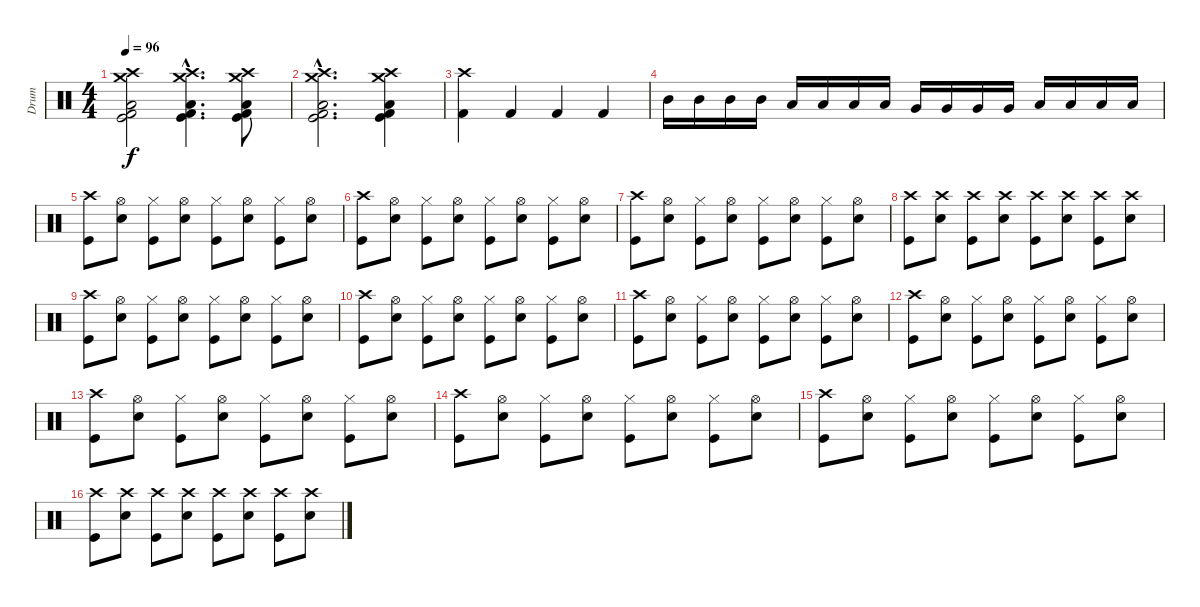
\track ("Drum" "Drum") {instrument percussion}
\staff {score}
\articulation defaults
\ts (4 4)
\tempo 96
\clef neutral
\ks c
("Crash high (hit)" "Crash medium (hit)" "Low Floor Tom (hit)" "Kick (hit)" "Kick (hit) 2").2{dy f} ("Crash high (hit)"{hac} "Crash medium (hit)"{hac} "Low Floor Tom (hit)"{hac} "Kick (hit)"{hac} "Kick (hit) 2"{hac}).4{d} ("Crash high (hit)" "Crash medium (hit)" "Low Floor Tom (hit)" "Kick (hit)" "Kick (hit) 2").8 |
("Crash high (hit)"{hac} "Crash medium (hit)"{hac} "Low Floor Tom (hit)"{hac} "Kick (hit)"{hac} "Kick (hit) 2"{hac}).2{d} ("Crash high (hit)" "Crash medium (hit)" "Low Floor Tom (hit)" "Kick (hit)" "Kick (hit) 2").4 |
("Crash high (hit)" "Kick (hit) 2").4 "Kick (hit) 2".4 "Kick (hit) 2".4 "Kick (hit) 2".4 |
"Mid Tom (hit)".16 "Mid Tom (hit)".16 "Mid Tom (hit)".16 "Mid Tom (hit)".16 "Low Tom (hit)".16 "Low Tom (hit)".16 "Low Tom (hit)".16 "Low Tom (hit)".16 "Very Low Tom (hit)".16 "Very Low Tom (hit)".16 "Very Low Tom (hit)".16 "Very Low Tom (hit)".16 "Low Floor Tom (hit)".16 "Low Floor Tom (hit)".16 "Low Floor Tom (hit)".16 "Low Floor Tom (hit)".16 |
("Crash high (hit)" "Kick (hit)").8 ("Hi-Hat (open)" "Electric Snare (hit)").8 ("Hi-Hat (closed)" "Kick (hit)").8 ("Hi-Hat (open)" "Electric Snare (hit)").8 ("Hi-Hat (closed)" "Kick (hit)").8 ("Hi-Hat (open)" "Electric Snare (hit)").8 ("Hi-Hat (closed)" "Kick (hit)").8 ("Hi-Hat (open)" "Electric Snare (hit)").8 |
("Crash high (hit)" "Kick (hit)").8 ("Hi-Hat (open)" "Electric Snare (hit)").8 ("Hi-Hat (closed)" "Kick (hit)").8 ("Hi-Hat (open)" "Electric Snare (hit)").8 ("Hi-Hat (closed)" "Kick (hit)").8 ("Hi-Hat (open)" "Electric Snare (hit)").8 ("Hi-Hat (closed)" "Kick (hit)").8 ("Hi-Hat (open)" "Electric Snare (hit)").8 |
("Crash high (hit)" "Kick (hit)").8 ("Hi-Hat (open)" "Electric Snare (hit)").8 ("Hi-Hat (closed)" "Kick (hit)").8 ("Hi-Hat (open)" "Electric Snare (hit)").8 ("Hi-Hat (closed)" "Kick (hit)").8 ("Hi-Hat (open)" "Electric Snare (hit)").8 ("Hi-Hat (closed)" "Kick (hit)").8 ("Hi-Hat (open)" "Electric Snare (hit)").8 |
("Crash high (hit)" "Kick (hit)").8 ("Crash high (hit)" "Electric Snare (hit)").8 ("Crash high (hit)" "Kick (hit)").8 ("Crash high (hit)" "Electric Snare (hit)").8 ("Crash high (hit)" "Kick (hit)").8 ("Crash high (hit)" "Electric Snare (hit)").8 ("Crash high (hit)" "Kick (hit)").8 ("Crash high (hit)" "Electric Snare (hit)").8 |
("Crash high (hit)" "Kick (hit)").8 ("Hi-Hat (open)" "Electric Snare (hit)").8 ("Hi-Hat (closed)" "Kick (hit)").8 ("Hi-Hat (open)" "Electric Snare (hit)").8 ("Hi-Hat (closed)" "Kick (hit)").8 ("Hi-Hat (open)" "Electric Snare (hit)").8 ("Hi-Hat (closed)" "Kick (hit)").8 ("Hi-Hat (open)" "Electric Snare (hit)").8 |
("Crash high (hit)" "Kick (hit)").8 ("Hi-Hat (open)" "Electric Snare (hit)").8 ("Hi-Hat (closed)" "Kick (hit)").8 ("Hi-Hat (open)" "Electric Snare (hit)").8 ("Hi-Hat (closed)" "Kick (hit)").8 ("Hi-Hat (open)" "Electric Snare (hit)").8 ("Hi-Hat (closed)" "Kick (hit)").8 ("Hi-Hat (open)" "Electric Snare (hit)").8 |
("Crash high (hit)" "Kick (hit)").8 ("Hi-Hat (open)" "Electric Snare (hit)").8 ("Hi-Hat (closed)" "Kick (hit)").8 ("Hi-Hat (open)" "Electric Snare (hit)").8 ("Hi-Hat (closed)" "Kick (hit)").8 ("Hi-Hat (open)" "Electric Snare (hit)").8 ("Hi-Hat (closed)" "Kick (hit)").8 ("Hi-Hat (open)" "Electric Snare (hit)").8 |
("Crash high (hit)" "Kick (hit)").8 ("Hi-Hat (open)" "Electric Snare (hit)").8 ("Hi-Hat (closed)" "Kick (hit)").8 ("Hi-Hat (open)" "Electric Snare (hit)").8 ("Hi-Hat (closed)" "Kick (hit)").8 ("Hi-Hat (open)" "Electric Snare (hit)").8 ("Hi-Hat (closed)" "Kick (hit)").8 ("Hi-Hat (open)" "Electric Snare (hit)").8 |
("Crash high (hit)" "Kick (hit)").8 ("Hi-Hat (open)" "Electric Snare (hit)").8 ("Hi-Hat (closed)" "Kick (hit)").8 ("Hi-Hat (open)" "Electric Snare (hit)").8 ("Hi-Hat (closed)" "Kick (hit)").8 ("Hi-Hat (open)" "Electric Snare (hit)").8 ("Hi-Hat (closed)" "Kick (hit)").8 ("Hi-Hat (open)" "Electric Snare (hit)").8 |
("Crash high (hit)" "Kick (hit)").8 ("Hi-Hat (open)" "Electric Snare (hit)").8 ("Hi-Hat (closed)" "Kick (hit)").8 ("Hi-Hat (open)" "Electric Snare (hit)").8 ("Hi-Hat (closed)" "Kick (hit)").8 ("Hi-Hat (open)" "Electric Snare (hit)").8 ("Hi-Hat (closed)" "Kick (hit)").8 ("Hi-Hat (open)" "Electric Snare (hit)").8 |
("Crash high (hit)" "Kick (hit)").8 ("Hi-Hat (open)" "Electric Snare (hit)").8 ("Hi-Hat (closed)" "Kick (hit)").8 ("Hi-Hat (open)" "Electric Snare (hit)").8 ("Hi-Hat (closed)" "Kick (hit)").8 ("Hi-Hat (open)" "Electric Snare (hit)").8 ("Hi-Hat (closed)" "Kick (hit)").8 ("Hi-Hat (open)" "Electric Snare (hit)").8 |
("Crash high (hit)" "Kick (hit)").8 ("Crash high (hit)" "Electric Snare (hit)").8 ("Crash high (hit)" "Kick (hit)").8 ("Crash high (hit)" "Electric Snare (hit)").8 ("Crash high (hit)" "Kick (hit)").8 ("Crash high (hit)" "Electric Snare (hit)").8 ("Crash high (hit)" "Kick (hit)").8 ("Crash high (hit)" "Electric Snare (hit)").8
